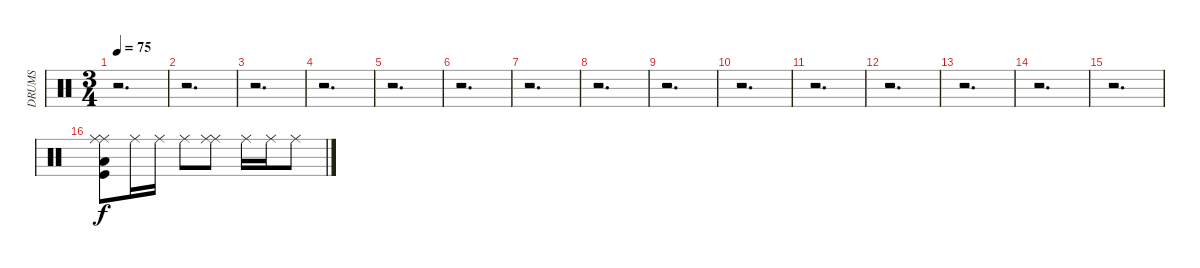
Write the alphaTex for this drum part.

\track ("DRUMS" "DRUMS") {instrument percussion}
\staff {score}
\articulation defaults
\ts (3 4)
\tempo 75
\clef neutral
\ks c
r.2{d dy f} |
r.2{d} |
r.2{d} |
r.2{d} |
r.2{d} |
r.2{d} |
r.2{d} |
r.2{d} |
r.2{d} |
r.2{d} |
r.2{d} |
r.2{d} |
r.2{d} |
r.2{d} |
r.2{d} |
("Kick (hit)" "Low Floor Tom (hit)" "Ride (middle)" "Ride (middle)").8 "Ride (middle)".16 "Ride (middle)".16 "Ride (middle)".8 ("Ride (middle)" "Ride (middle)").8 "Ride (middle)".16 "Ride (middle)".16 "Ride (middle)".8
